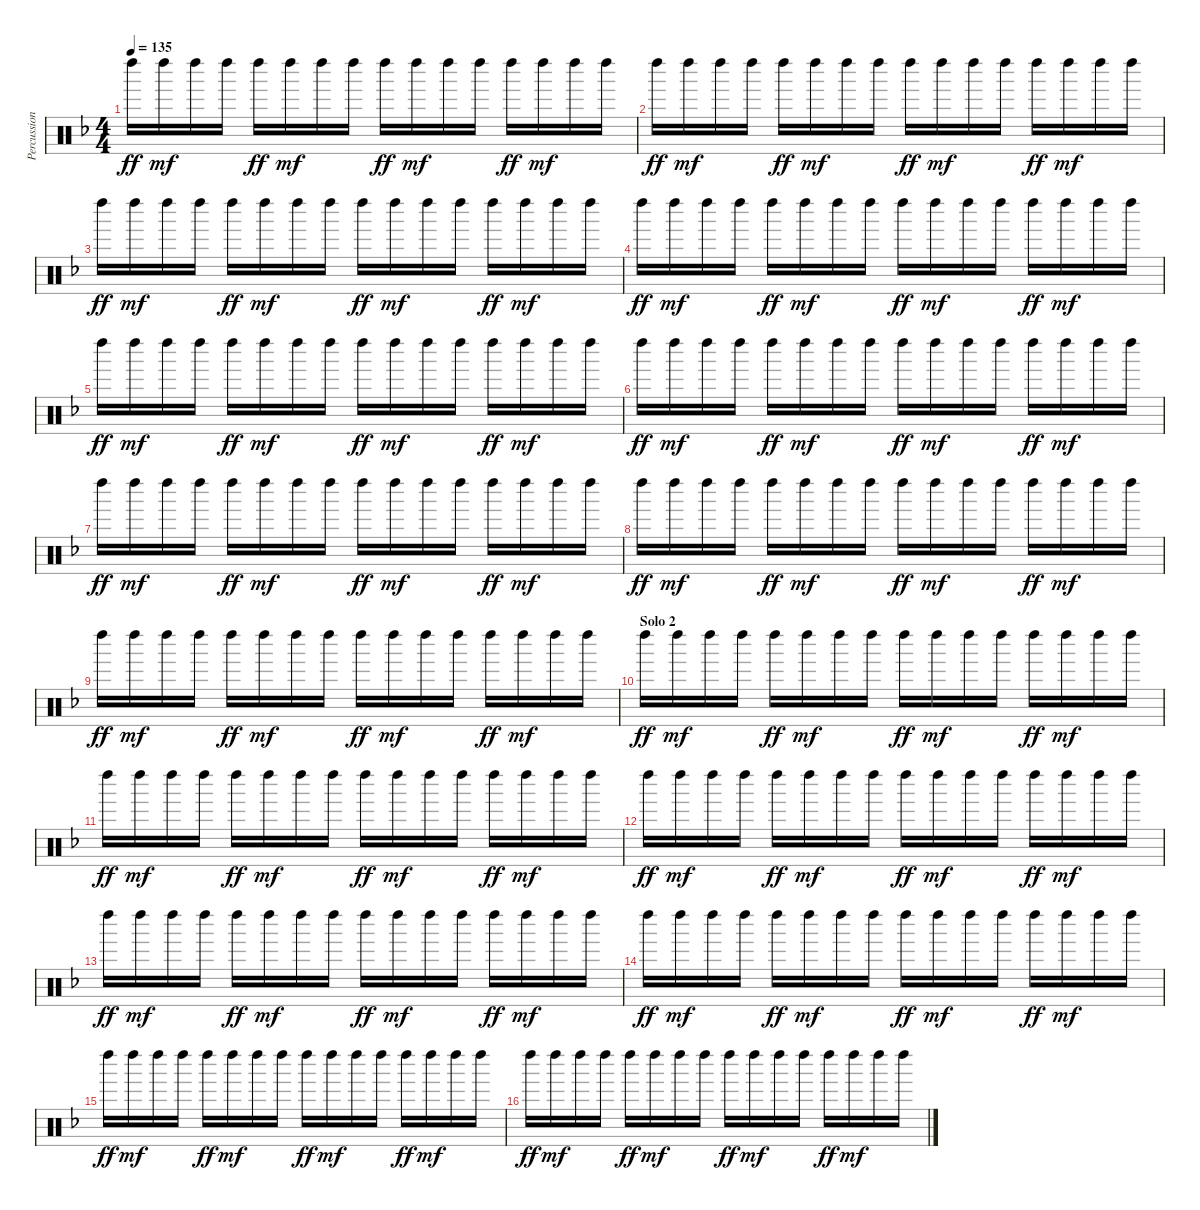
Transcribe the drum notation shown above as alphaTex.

\track ("Percussions" "Percussion") {instrument percussion}
\staff {score}
\articulation defaults
\ts (4 4)
\tempo 135
\clef neutral
\ks f "Left Maraca (hit)".16{dy ff} "Left Maraca (hit)".16{dy mf} "Left Maraca (hit)".16 "Left Maraca (hit)".16 "Left Maraca (hit)".16{dy ff} "Left Maraca (hit)".16{dy mf} "Left Maraca (hit)".16 "Left Maraca (hit)".16 "Left Maraca (hit)".16{dy ff} "Left Maraca (hit)".16{dy mf} "Left Maraca (hit)".16 "Left Maraca (hit)".16 "Left Maraca (hit)".16{dy ff} "Left Maraca (hit)".16{dy mf} "Left Maraca (hit)".16 "Left Maraca (hit)".16
|
"Left Maraca (hit)".16{dy ff} "Left Maraca (hit)".16{dy mf} "Left Maraca (hit)".16 "Left Maraca (hit)".16 "Left Maraca (hit)".16{dy ff} "Left Maraca (hit)".16{dy mf} "Left Maraca (hit)".16 "Left Maraca (hit)".16 "Left Maraca (hit)".16{dy ff} "Left Maraca (hit)".16{dy mf} "Left Maraca (hit)".16 "Left Maraca (hit)".16 "Left Maraca (hit)".16{dy ff} "Left Maraca (hit)".16{dy mf} "Left Maraca (hit)".16 "Left Maraca (hit)".16 |
"Left Maraca (hit)".16{dy ff} "Left Maraca (hit)".16{dy mf} "Left Maraca (hit)".16 "Left Maraca (hit)".16 "Left Maraca (hit)".16{dy ff} "Left Maraca (hit)".16{dy mf} "Left Maraca (hit)".16 "Left Maraca (hit)".16 "Left Maraca (hit)".16{dy ff} "Left Maraca (hit)".16{dy mf} "Left Maraca (hit)".16 "Left Maraca (hit)".16 "Left Maraca (hit)".16{dy ff} "Left Maraca (hit)".16{dy mf} "Left Maraca (hit)".16 "Left Maraca (hit)".16 |
"Left Maraca (hit)".16{dy ff} "Left Maraca (hit)".16{dy mf} "Left Maraca (hit)".16 "Left Maraca (hit)".16 "Left Maraca (hit)".16{dy ff} "Left Maraca (hit)".16{dy mf} "Left Maraca (hit)".16 "Left Maraca (hit)".16 "Left Maraca (hit)".16{dy ff} "Left Maraca (hit)".16{dy mf} "Left Maraca (hit)".16 "Left Maraca (hit)".16 "Left Maraca (hit)".16{dy ff} "Left Maraca (hit)".16{dy mf} "Left Maraca (hit)".16 "Left Maraca (hit)".16 |
"Left Maraca (hit)".16{dy ff} "Left Maraca (hit)".16{dy mf} "Left Maraca (hit)".16 "Left Maraca (hit)".16 "Left Maraca (hit)".16{dy ff} "Left Maraca (hit)".16{dy mf} "Left Maraca (hit)".16 "Left Maraca (hit)".16 "Left Maraca (hit)".16{dy ff} "Left Maraca (hit)".16{dy mf} "Left Maraca (hit)".16 "Left Maraca (hit)".16 "Left Maraca (hit)".16{dy ff} "Left Maraca (hit)".16{dy mf} "Left Maraca (hit)".16 "Left Maraca (hit)".16 |
"Left Maraca (hit)".16{dy ff} "Left Maraca (hit)".16{dy mf} "Left Maraca (hit)".16 "Left Maraca (hit)".16 "Left Maraca (hit)".16{dy ff} "Left Maraca (hit)".16{dy mf} "Left Maraca (hit)".16 "Left Maraca (hit)".16 "Left Maraca (hit)".16{dy ff} "Left Maraca (hit)".16{dy mf} "Left Maraca (hit)".16 "Left Maraca (hit)".16 "Left Maraca (hit)".16{dy ff} "Left Maraca (hit)".16{dy mf} "Left Maraca (hit)".16 "Left Maraca (hit)".16 |
"Left Maraca (hit)".16{dy ff} "Left Maraca (hit)".16{dy mf} "Left Maraca (hit)".16 "Left Maraca (hit)".16 "Left Maraca (hit)".16{dy ff} "Left Maraca (hit)".16{dy mf} "Left Maraca (hit)".16 "Left Maraca (hit)".16 "Left Maraca (hit)".16{dy ff} "Left Maraca (hit)".16{dy mf} "Left Maraca (hit)".16 "Left Maraca (hit)".16 "Left Maraca (hit)".16{dy ff} "Left Maraca (hit)".16{dy mf} "Left Maraca (hit)".16 "Left Maraca (hit)".16 |
"Left Maraca (hit)".16{dy ff} "Left Maraca (hit)".16{dy mf} "Left Maraca (hit)".16 "Left Maraca (hit)".16 "Left Maraca (hit)".16{dy ff} "Left Maraca (hit)".16{dy mf} "Left Maraca (hit)".16 "Left Maraca (hit)".16 "Left Maraca (hit)".16{dy ff} "Left Maraca (hit)".16{dy mf} "Left Maraca (hit)".16 "Left Maraca (hit)".16 "Left Maraca (hit)".16{dy ff} "Left Maraca (hit)".16{dy mf} "Left Maraca (hit)".16 "Left Maraca (hit)".16 |
"Left Maraca (hit)".16{dy ff} "Left Maraca (hit)".16{dy mf} "Left Maraca (hit)".16 "Left Maraca (hit)".16 "Left Maraca (hit)".16{dy ff} "Left Maraca (hit)".16{dy mf} "Left Maraca (hit)".16 "Left Maraca (hit)".16 "Left Maraca (hit)".16{dy ff} "Left Maraca (hit)".16{dy mf} "Left Maraca (hit)".16 "Left Maraca (hit)".16 "Left Maraca (hit)".16{dy ff} "Left Maraca (hit)".16{dy mf} "Left Maraca (hit)".16 "Left Maraca (hit)".16 |
\section ("" "Solo 2")
"Left Maraca (hit)".16{dy ff} "Left Maraca (hit)".16{dy mf} "Left Maraca (hit)".16 "Left Maraca (hit)".16 "Left Maraca (hit)".16{dy ff} "Left Maraca (hit)".16{dy mf} "Left Maraca (hit)".16 "Left Maraca (hit)".16 "Left Maraca (hit)".16{dy ff} "Left Maraca (hit)".16{dy mf} "Left Maraca (hit)".16 "Left Maraca (hit)".16 "Left Maraca (hit)".16{dy ff} "Left Maraca (hit)".16{dy mf} "Left Maraca (hit)".16 "Left Maraca (hit)".16 |
"Left Maraca (hit)".16{dy ff} "Left Maraca (hit)".16{dy mf} "Left Maraca (hit)".16 "Left Maraca (hit)".16 "Left Maraca (hit)".16{dy ff} "Left Maraca (hit)".16{dy mf} "Left Maraca (hit)".16 "Left Maraca (hit)".16 "Left Maraca (hit)".16{dy ff} "Left Maraca (hit)".16{dy mf} "Left Maraca (hit)".16 "Left Maraca (hit)".16 "Left Maraca (hit)".16{dy ff} "Left Maraca (hit)".16{dy mf} "Left Maraca (hit)".16 "Left Maraca (hit)".16 |
"Left Maraca (hit)".16{dy ff} "Left Maraca (hit)".16{dy mf} "Left Maraca (hit)".16 "Left Maraca (hit)".16 "Left Maraca (hit)".16{dy ff} "Left Maraca (hit)".16{dy mf} "Left Maraca (hit)".16 "Left Maraca (hit)".16 "Left Maraca (hit)".16{dy ff} "Left Maraca (hit)".16{dy mf} "Left Maraca (hit)".16 "Left Maraca (hit)".16 "Left Maraca (hit)".16{dy ff} "Left Maraca (hit)".16{dy mf} "Left Maraca (hit)".16 "Left Maraca (hit)".16 |
"Left Maraca (hit)".16{dy ff} "Left Maraca (hit)".16{dy mf} "Left Maraca (hit)".16 "Left Maraca (hit)".16 "Left Maraca (hit)".16{dy ff} "Left Maraca (hit)".16{dy mf} "Left Maraca (hit)".16 "Left Maraca (hit)".16 "Left Maraca (hit)".16{dy ff} "Left Maraca (hit)".16{dy mf} "Left Maraca (hit)".16 "Left Maraca (hit)".16 "Left Maraca (hit)".16{dy ff} "Left Maraca (hit)".16{dy mf} "Left Maraca (hit)".16 "Left Maraca (hit)".16 |
"Left Maraca (hit)".16{dy ff} "Left Maraca (hit)".16{dy mf} "Left Maraca (hit)".16 "Left Maraca (hit)".16 "Left Maraca (hit)".16{dy ff} "Left Maraca (hit)".16{dy mf} "Left Maraca (hit)".16 "Left Maraca (hit)".16 "Left Maraca (hit)".16{dy ff} "Left Maraca (hit)".16{dy mf} "Left Maraca (hit)".16 "Left Maraca (hit)".16 "Left Maraca (hit)".16{dy ff} "Left Maraca (hit)".16{dy mf} "Left Maraca (hit)".16 "Left Maraca (hit)".16 |
"Left Maraca (hit)".16{dy ff} "Left Maraca (hit)".16{dy mf} "Left Maraca (hit)".16 "Left Maraca (hit)".16 "Left Maraca (hit)".16{dy ff} "Left Maraca (hit)".16{dy mf} "Left Maraca (hit)".16 "Left Maraca (hit)".16 "Left Maraca (hit)".16{dy ff} "Left Maraca (hit)".16{dy mf} "Left Maraca (hit)".16 "Left Maraca (hit)".16 "Left Maraca (hit)".16{dy ff} "Left Maraca (hit)".16{dy mf} "Left Maraca (hit)".16 "Left Maraca (hit)".16 |
"Left Maraca (hit)".16{dy ff} "Left Maraca (hit)".16{dy mf} "Left Maraca (hit)".16 "Left Maraca (hit)".16 "Left Maraca (hit)".16{dy ff} "Left Maraca (hit)".16{dy mf} "Left Maraca (hit)".16 "Left Maraca (hit)".16 "Left Maraca (hit)".16{dy ff} "Left Maraca (hit)".16{dy mf} "Left Maraca (hit)".16 "Left Maraca (hit)".16 "Left Maraca (hit)".16{dy ff} "Left Maraca (hit)".16{dy mf} "Left Maraca (hit)".16 "Left Maraca (hit)".16
